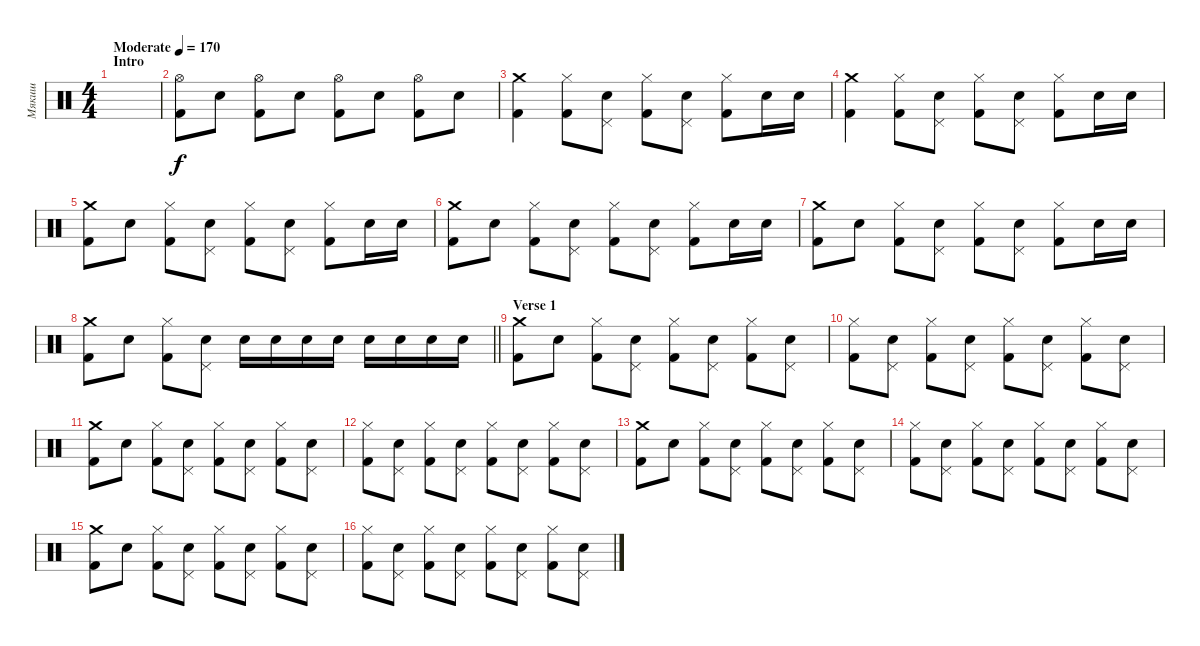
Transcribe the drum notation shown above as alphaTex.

\track ("Мякиш" "Мякиш") {instrument percussion}
\staff {score}
\articulation defaults
\ts (4 4)
\section ("" "Intro")
\tempo (170 "Moderate")
\tempo 190
\tempo (170 "Moderate")
\clef neutral
\ks c
|
("Hi-Hat (open)" "Kick (hit) 2").8 "Electric Snare (hit)".8 ("Hi-Hat (open)" "Kick (hit) 2").8 "Electric Snare (hit)".8 ("Hi-Hat (open)" "Kick (hit) 2").8 "Electric Snare (hit)".8 ("Hi-Hat (open)" "Kick (hit) 2").8 "Electric Snare (hit)".8 |
("Crash medium (hit)" "Kick (hit) 2").4 ("Hi-Hat (closed)" "Kick (hit) 2").8 ("Pedal Hi-Hat (hit)" "Electric Snare (hit)").8 ("Hi-Hat (closed)" "Kick (hit) 2").8 ("Pedal Hi-Hat (hit)" "Electric Snare (hit)").8 ("Hi-Hat (closed)" "Kick (hit) 2").8 "Electric Snare (hit)".16 "Electric Snare (hit)".16 |
("Crash medium (hit)" "Kick (hit) 2").4 ("Hi-Hat (closed)" "Kick (hit) 2").8 ("Pedal Hi-Hat (hit)" "Electric Snare (hit)").8 ("Hi-Hat (closed)" "Kick (hit) 2").8 ("Pedal Hi-Hat (hit)" "Electric Snare (hit)").8 ("Hi-Hat (closed)" "Kick (hit) 2").8 "Electric Snare (hit)".16 "Electric Snare (hit)".16 |
("Crash medium (hit)" "Kick (hit) 2").8 "Electric Snare (hit)".8 ("Hi-Hat (closed)" "Kick (hit) 2").8 ("Pedal Hi-Hat (hit)" "Electric Snare (hit)").8 ("Hi-Hat (closed)" "Kick (hit) 2").8 ("Pedal Hi-Hat (hit)" "Electric Snare (hit)").8 ("Hi-Hat (closed)" "Kick (hit) 2").8 "Electric Snare (hit)".16 "Electric Snare (hit)".16 |
("Crash medium (hit)" "Kick (hit) 2").8 "Electric Snare (hit)".8 ("Hi-Hat (closed)" "Kick (hit) 2").8 ("Pedal Hi-Hat (hit)" "Electric Snare (hit)").8 ("Hi-Hat (closed)" "Kick (hit) 2").8 ("Pedal Hi-Hat (hit)" "Electric Snare (hit)").8 ("Hi-Hat (closed)" "Kick (hit) 2").8 "Electric Snare (hit)".16 "Electric Snare (hit)".16 |
("Crash medium (hit)" "Kick (hit) 2").8 "Electric Snare (hit)".8 ("Hi-Hat (closed)" "Kick (hit) 2").8 ("Pedal Hi-Hat (hit)" "Electric Snare (hit)").8 ("Hi-Hat (closed)" "Kick (hit) 2").8 ("Pedal Hi-Hat (hit)" "Electric Snare (hit)").8 ("Hi-Hat (closed)" "Kick (hit) 2").8 "Electric Snare (hit)".16 "Electric Snare (hit)".16 |
\barLineRight lightlight
("Crash medium (hit)" "Kick (hit) 2").8 "Electric Snare (hit)".8 ("Hi-Hat (closed)" "Kick (hit) 2").8 ("Pedal Hi-Hat (hit)" "Electric Snare (hit)").8 "Electric Snare (hit)".16 "Electric Snare (hit)".16 "Electric Snare (hit)".16 "Electric Snare (hit)".16 "Electric Snare (hit)".16 "Electric Snare (hit)".16 "Electric Snare (hit)".16 "Electric Snare (hit)".16 |
\section ("" "Verse 1")
("Crash medium (hit)" "Kick (hit) 2").8 "Electric Snare (hit)".8 ("Hi-Hat (closed)" "Kick (hit) 2").8 ("Pedal Hi-Hat (hit)" "Electric Snare (hit)").8 ("Hi-Hat (closed)" "Kick (hit) 2").8 ("Pedal Hi-Hat (hit)" "Electric Snare (hit)").8 ("Hi-Hat (closed)" "Kick (hit) 2").8 ("Pedal Hi-Hat (hit)" "Electric Snare (hit)").8 |
("Hi-Hat (closed)" "Kick (hit) 2").8 ("Pedal Hi-Hat (hit)" "Electric Snare (hit)").8 ("Hi-Hat (closed)" "Kick (hit) 2").8 ("Pedal Hi-Hat (hit)" "Electric Snare (hit)").8 ("Hi-Hat (closed)" "Kick (hit) 2").8 ("Pedal Hi-Hat (hit)" "Electric Snare (hit)").8 ("Hi-Hat (closed)" "Kick (hit) 2").8 ("Pedal Hi-Hat (hit)" "Electric Snare (hit)").8 |
("Crash medium (hit)" "Kick (hit) 2").8 "Electric Snare (hit)".8 ("Hi-Hat (closed)" "Kick (hit) 2").8 ("Pedal Hi-Hat (hit)" "Electric Snare (hit)").8 ("Hi-Hat (closed)" "Kick (hit) 2").8 ("Pedal Hi-Hat (hit)" "Electric Snare (hit)").8 ("Hi-Hat (closed)" "Kick (hit) 2").8 ("Pedal Hi-Hat (hit)" "Electric Snare (hit)").8 |
("Hi-Hat (closed)" "Kick (hit) 2").8 ("Pedal Hi-Hat (hit)" "Electric Snare (hit)").8 ("Hi-Hat (closed)" "Kick (hit) 2").8 ("Pedal Hi-Hat (hit)" "Electric Snare (hit)").8 ("Hi-Hat (closed)" "Kick (hit) 2").8 ("Pedal Hi-Hat (hit)" "Electric Snare (hit)").8 ("Hi-Hat (closed)" "Kick (hit) 2").8 ("Pedal Hi-Hat (hit)" "Electric Snare (hit)").8 |
("Crash medium (hit)" "Kick (hit) 2").8 "Electric Snare (hit)".8 ("Hi-Hat (closed)" "Kick (hit) 2").8 ("Pedal Hi-Hat (hit)" "Electric Snare (hit)").8 ("Hi-Hat (closed)" "Kick (hit) 2").8 ("Pedal Hi-Hat (hit)" "Electric Snare (hit)").8 ("Hi-Hat (closed)" "Kick (hit) 2").8 ("Pedal Hi-Hat (hit)" "Electric Snare (hit)").8 |
("Hi-Hat (closed)" "Kick (hit) 2").8 ("Pedal Hi-Hat (hit)" "Electric Snare (hit)").8 ("Hi-Hat (closed)" "Kick (hit) 2").8 ("Pedal Hi-Hat (hit)" "Electric Snare (hit)").8 ("Hi-Hat (closed)" "Kick (hit) 2").8 ("Pedal Hi-Hat (hit)" "Electric Snare (hit)").8 ("Hi-Hat (closed)" "Kick (hit) 2").8 ("Pedal Hi-Hat (hit)" "Electric Snare (hit)").8 |
("Crash medium (hit)" "Kick (hit) 2").8 "Electric Snare (hit)".8 ("Hi-Hat (closed)" "Kick (hit) 2").8 ("Pedal Hi-Hat (hit)" "Electric Snare (hit)").8 ("Hi-Hat (closed)" "Kick (hit) 2").8 ("Pedal Hi-Hat (hit)" "Electric Snare (hit)").8 ("Hi-Hat (closed)" "Kick (hit) 2").8 ("Pedal Hi-Hat (hit)" "Electric Snare (hit)").8 |
("Hi-Hat (closed)" "Kick (hit) 2").8 ("Pedal Hi-Hat (hit)" "Electric Snare (hit)").8 ("Hi-Hat (closed)" "Kick (hit) 2").8 ("Pedal Hi-Hat (hit)" "Electric Snare (hit)").8 ("Hi-Hat (closed)" "Kick (hit) 2").8 ("Pedal Hi-Hat (hit)" "Electric Snare (hit)").8 ("Hi-Hat (closed)" "Kick (hit) 2").8 ("Pedal Hi-Hat (hit)" "Electric Snare (hit)").8
